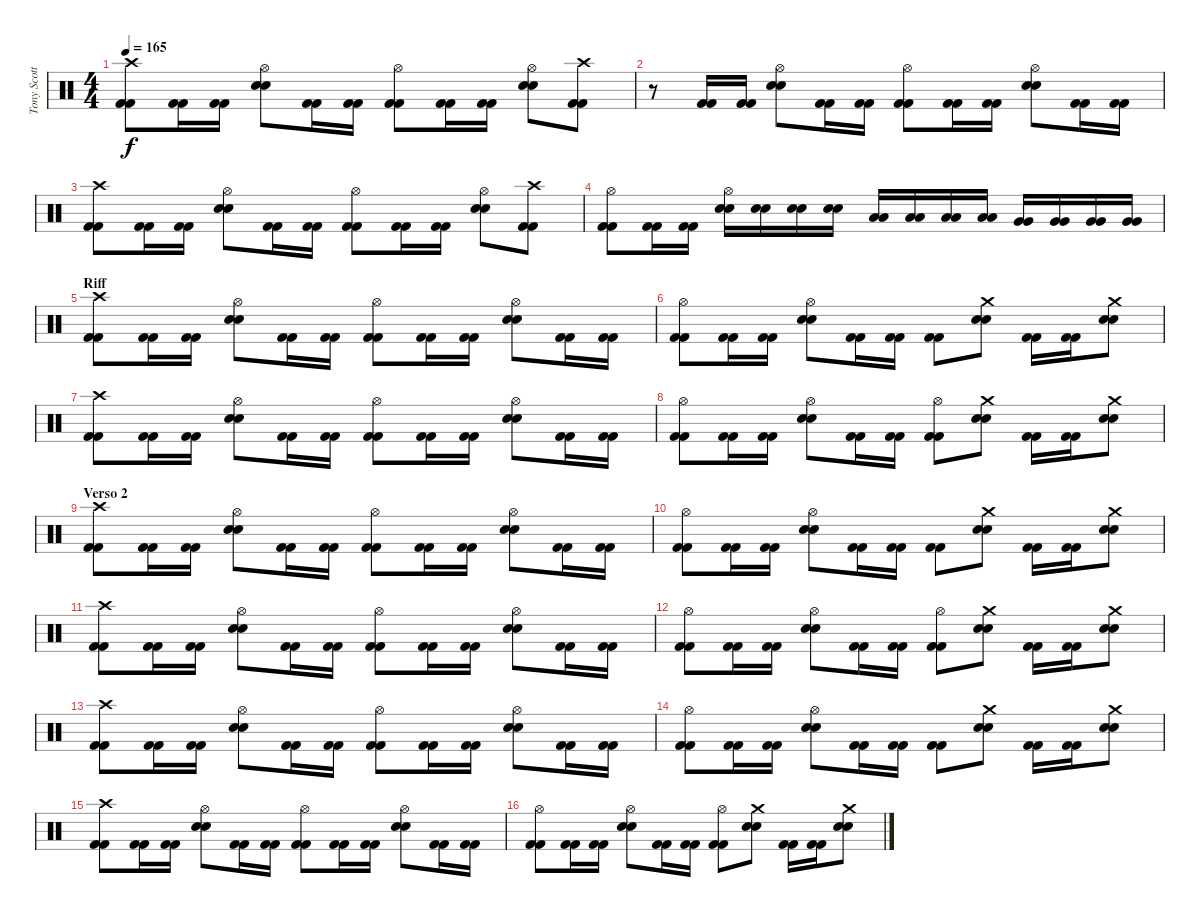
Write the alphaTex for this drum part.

\track ("Tony Scotto (bateria)" "Tony Scott") {instrument percussion}
\staff {score}
\articulation defaults
\ts (4 4)
\tempo 165
\clef neutral
\ks c
("Crash high (hit)" "Kick (hit) 2" "Kick (hit) 2").8{dy f} ("Kick (hit) 2" "Kick (hit) 2").16 ("Kick (hit) 2" "Kick (hit) 2").16 ("Hi-Hat (open)" "Snare (hit) 2" "Snare (hit) 2").8 ("Kick (hit) 2" "Kick (hit) 2").16 ("Kick (hit) 2" "Kick (hit) 2").16 ("Hi-Hat (open)" "Kick (hit) 2" "Kick (hit) 2").8 ("Kick (hit) 2" "Kick (hit) 2").16 ("Kick (hit) 2" "Kick (hit) 2").16 ("Hi-Hat (open)" "Snare (hit) 2" "Snare (hit) 2").8 ("Crash high (hit)" "Kick (hit) 2" "Kick (hit) 2").8 |
r.8 ("Kick (hit) 2" "Kick (hit) 2").16 ("Kick (hit) 2" "Kick (hit) 2").16 ("Hi-Hat (open)" "Snare (hit) 2" "Snare (hit) 2").8 ("Kick (hit) 2" "Kick (hit) 2").16 ("Kick (hit) 2" "Kick (hit) 2").16 ("Hi-Hat (open)" "Kick (hit) 2" "Kick (hit) 2").8 ("Kick (hit) 2" "Kick (hit) 2").16 ("Kick (hit) 2" "Kick (hit) 2").16 ("Hi-Hat (open)" "Snare (hit) 2" "Snare (hit) 2").8 ("Kick (hit) 2" "Kick (hit) 2").16 ("Kick (hit) 2" "Kick (hit) 2").16 |
("Crash high (hit)" "Kick (hit) 2" "Kick (hit) 2").8 ("Kick (hit) 2" "Kick (hit) 2").16 ("Kick (hit) 2" "Kick (hit) 2").16 ("Hi-Hat (open)" "Snare (hit) 2" "Snare (hit) 2").8 ("Kick (hit) 2" "Kick (hit) 2").16 ("Kick (hit) 2" "Kick (hit) 2").16 ("Hi-Hat (open)" "Kick (hit) 2" "Kick (hit) 2").8 ("Kick (hit) 2" "Kick (hit) 2").16 ("Kick (hit) 2" "Kick (hit) 2").16 ("Hi-Hat (open)" "Snare (hit) 2" "Snare (hit) 2").8 ("Crash high (hit)" "Kick (hit) 2" "Kick (hit) 2").8 |
("Hi-Hat (open)" "Kick (hit) 2" "Kick (hit) 2").8 ("Kick (hit) 2" "Kick (hit) 2").16 ("Kick (hit) 2" "Kick (hit) 2").16 ("Hi-Hat (open)" "Snare (hit) 2" "Snare (hit) 2").16 ("Snare (hit) 2" "Snare (hit) 2").16 ("Snare (hit) 2" "Snare (hit) 2").16 ("Snare (hit) 2" "Snare (hit) 2").16 ("Low Tom (hit)" "Low Tom (hit)").16 ("Low Tom (hit)" "Low Tom (hit)").16 ("Low Tom (hit)" "Low Tom (hit)").16 ("Low Tom (hit)" "Low Tom (hit)").16 ("Very Low Tom (hit)" "Very Low Tom (hit)").16 ("Very Low Tom (hit)" "Very Low Tom (hit)").16 ("Very Low Tom (hit)" "Very Low Tom (hit)").16 ("Very Low Tom (hit)" "Very Low Tom (hit)").16 |
\section ("" "Riff")
("Crash high (hit)" "Kick (hit) 2" "Kick (hit) 2").8 ("Kick (hit) 2" "Kick (hit) 2").16 ("Kick (hit) 2" "Kick (hit) 2").16 ("Hi-Hat (open)" "Snare (hit) 2" "Snare (hit) 2").8 ("Kick (hit) 2" "Kick (hit) 2").16 ("Kick (hit) 2" "Kick (hit) 2").16 ("Hi-Hat (open)" "Kick (hit) 2" "Kick (hit) 2").8 ("Kick (hit) 2" "Kick (hit) 2").16 ("Kick (hit) 2" "Kick (hit) 2").16 ("Hi-Hat (open)" "Snare (hit) 2" "Snare (hit) 2").8 ("Kick (hit) 2" "Kick (hit) 2").16 ("Kick (hit) 2" "Kick (hit) 2").16 |
("Hi-Hat (open)" "Kick (hit) 2" "Kick (hit) 2").8 ("Kick (hit) 2" "Kick (hit) 2").16 ("Kick (hit) 2" "Kick (hit) 2").16 ("Hi-Hat (open)" "Snare (hit) 2" "Snare (hit) 2").8 ("Kick (hit) 2" "Kick (hit) 2").16 ("Kick (hit) 2" "Kick (hit) 2").16 ("Kick (hit) 2" "Kick (hit) 2").8 ("Crash medium (hit)" "Snare (hit) 2" "Snare (hit) 2").8 ("Kick (hit) 2" "Kick (hit) 2").16 ("Kick (hit) 2" "Kick (hit) 2").16 ("Crash medium (hit)" "Snare (hit) 2" "Snare (hit) 2").8 |
("Crash high (hit)" "Kick (hit) 2" "Kick (hit) 2").8 ("Kick (hit) 2" "Kick (hit) 2").16 ("Kick (hit) 2" "Kick (hit) 2").16 ("Hi-Hat (open)" "Snare (hit) 2" "Snare (hit) 2").8 ("Kick (hit) 2" "Kick (hit) 2").16 ("Kick (hit) 2" "Kick (hit) 2").16 ("Hi-Hat (open)" "Kick (hit) 2" "Kick (hit) 2").8 ("Kick (hit) 2" "Kick (hit) 2").16 ("Kick (hit) 2" "Kick (hit) 2").16 ("Hi-Hat (open)" "Snare (hit) 2" "Snare (hit) 2").8 ("Kick (hit) 2" "Kick (hit) 2").16 ("Kick (hit) 2" "Kick (hit) 2").16 |
("Hi-Hat (open)" "Kick (hit) 2" "Kick (hit) 2").8 ("Kick (hit) 2" "Kick (hit) 2").16 ("Kick (hit) 2" "Kick (hit) 2").16 ("Hi-Hat (open)" "Snare (hit) 2" "Snare (hit) 2").8 ("Kick (hit) 2" "Kick (hit) 2").16 ("Kick (hit) 2" "Kick (hit) 2").16 ("Hi-Hat (open)" "Kick (hit) 2" "Kick (hit) 2").8 ("Crash medium (hit)" "Snare (hit) 2" "Snare (hit) 2").8 ("Kick (hit) 2" "Kick (hit) 2").16 ("Kick (hit) 2" "Kick (hit) 2").16 ("Crash medium (hit)" "Snare (hit) 2" "Snare (hit) 2").8 |
\section ("" "Verso 2")
("Crash high (hit)" "Kick (hit) 2" "Kick (hit) 2").8 ("Kick (hit) 2" "Kick (hit) 2").16 ("Kick (hit) 2" "Kick (hit) 2").16 ("Hi-Hat (open)" "Snare (hit) 2" "Snare (hit) 2").8 ("Kick (hit) 2" "Kick (hit) 2").16 ("Kick (hit) 2" "Kick (hit) 2").16 ("Hi-Hat (open)" "Kick (hit) 2" "Kick (hit) 2").8 ("Kick (hit) 2" "Kick (hit) 2").16 ("Kick (hit) 2" "Kick (hit) 2").16 ("Hi-Hat (open)" "Snare (hit) 2" "Snare (hit) 2").8 ("Kick (hit) 2" "Kick (hit) 2").16 ("Kick (hit) 2" "Kick (hit) 2").16 |
("Hi-Hat (open)" "Kick (hit) 2" "Kick (hit) 2").8 ("Kick (hit) 2" "Kick (hit) 2").16 ("Kick (hit) 2" "Kick (hit) 2").16 ("Hi-Hat (open)" "Snare (hit) 2" "Snare (hit) 2").8 ("Kick (hit) 2" "Kick (hit) 2").16 ("Kick (hit) 2" "Kick (hit) 2").16 ("Kick (hit) 2" "Kick (hit) 2").8 ("Crash medium (hit)" "Snare (hit) 2" "Snare (hit) 2").8 ("Kick (hit) 2" "Kick (hit) 2").16 ("Kick (hit) 2" "Kick (hit) 2").16 ("Crash medium (hit)" "Snare (hit) 2" "Snare (hit) 2").8 |
("Crash high (hit)" "Kick (hit) 2" "Kick (hit) 2").8 ("Kick (hit) 2" "Kick (hit) 2").16 ("Kick (hit) 2" "Kick (hit) 2").16 ("Hi-Hat (open)" "Snare (hit) 2" "Snare (hit) 2").8 ("Kick (hit) 2" "Kick (hit) 2").16 ("Kick (hit) 2" "Kick (hit) 2").16 ("Hi-Hat (open)" "Kick (hit) 2" "Kick (hit) 2").8 ("Kick (hit) 2" "Kick (hit) 2").16 ("Kick (hit) 2" "Kick (hit) 2").16 ("Hi-Hat (open)" "Snare (hit) 2" "Snare (hit) 2").8 ("Kick (hit) 2" "Kick (hit) 2").16 ("Kick (hit) 2" "Kick (hit) 2").16 |
("Hi-Hat (open)" "Kick (hit) 2" "Kick (hit) 2").8 ("Kick (hit) 2" "Kick (hit) 2").16 ("Kick (hit) 2" "Kick (hit) 2").16 ("Hi-Hat (open)" "Snare (hit) 2" "Snare (hit) 2").8 ("Kick (hit) 2" "Kick (hit) 2").16 ("Kick (hit) 2" "Kick (hit) 2").16 ("Hi-Hat (open)" "Kick (hit) 2" "Kick (hit) 2").8 ("Crash medium (hit)" "Snare (hit) 2" "Snare (hit) 2").8 ("Kick (hit) 2" "Kick (hit) 2").16 ("Kick (hit) 2" "Kick (hit) 2").16 ("Crash medium (hit)" "Snare (hit) 2" "Snare (hit) 2").8 |
("Crash high (hit)" "Kick (hit) 2" "Kick (hit) 2").8 ("Kick (hit) 2" "Kick (hit) 2").16 ("Kick (hit) 2" "Kick (hit) 2").16 ("Hi-Hat (open)" "Snare (hit) 2" "Snare (hit) 2").8 ("Kick (hit) 2" "Kick (hit) 2").16 ("Kick (hit) 2" "Kick (hit) 2").16 ("Hi-Hat (open)" "Kick (hit) 2" "Kick (hit) 2").8 ("Kick (hit) 2" "Kick (hit) 2").16 ("Kick (hit) 2" "Kick (hit) 2").16 ("Hi-Hat (open)" "Snare (hit) 2" "Snare (hit) 2").8 ("Kick (hit) 2" "Kick (hit) 2").16 ("Kick (hit) 2" "Kick (hit) 2").16 |
("Hi-Hat (open)" "Kick (hit) 2" "Kick (hit) 2").8 ("Kick (hit) 2" "Kick (hit) 2").16 ("Kick (hit) 2" "Kick (hit) 2").16 ("Hi-Hat (open)" "Snare (hit) 2" "Snare (hit) 2").8 ("Kick (hit) 2" "Kick (hit) 2").16 ("Kick (hit) 2" "Kick (hit) 2").16 ("Kick (hit) 2" "Kick (hit) 2").8 ("Crash medium (hit)" "Snare (hit) 2" "Snare (hit) 2").8 ("Kick (hit) 2" "Kick (hit) 2").16 ("Kick (hit) 2" "Kick (hit) 2").16 ("Crash medium (hit)" "Snare (hit) 2" "Snare (hit) 2").8 |
("Crash high (hit)" "Kick (hit) 2" "Kick (hit) 2").8 ("Kick (hit) 2" "Kick (hit) 2").16 ("Kick (hit) 2" "Kick (hit) 2").16 ("Hi-Hat (open)" "Snare (hit) 2" "Snare (hit) 2").8 ("Kick (hit) 2" "Kick (hit) 2").16 ("Kick (hit) 2" "Kick (hit) 2").16 ("Hi-Hat (open)" "Kick (hit) 2" "Kick (hit) 2").8 ("Kick (hit) 2" "Kick (hit) 2").16 ("Kick (hit) 2" "Kick (hit) 2").16 ("Hi-Hat (open)" "Snare (hit) 2" "Snare (hit) 2").8 ("Kick (hit) 2" "Kick (hit) 2").16 ("Kick (hit) 2" "Kick (hit) 2").16 |
("Hi-Hat (open)" "Kick (hit) 2" "Kick (hit) 2").8 ("Kick (hit) 2" "Kick (hit) 2").16 ("Kick (hit) 2" "Kick (hit) 2").16 ("Hi-Hat (open)" "Snare (hit) 2" "Snare (hit) 2").8 ("Kick (hit) 2" "Kick (hit) 2").16 ("Kick (hit) 2" "Kick (hit) 2").16 ("Hi-Hat (open)" "Kick (hit) 2" "Kick (hit) 2").8 ("Crash medium (hit)" "Snare (hit) 2" "Snare (hit) 2").8 ("Kick (hit) 2" "Kick (hit) 2").16 ("Kick (hit) 2" "Kick (hit) 2").16 ("Crash medium (hit)" "Snare (hit) 2" "Snare (hit) 2").8
